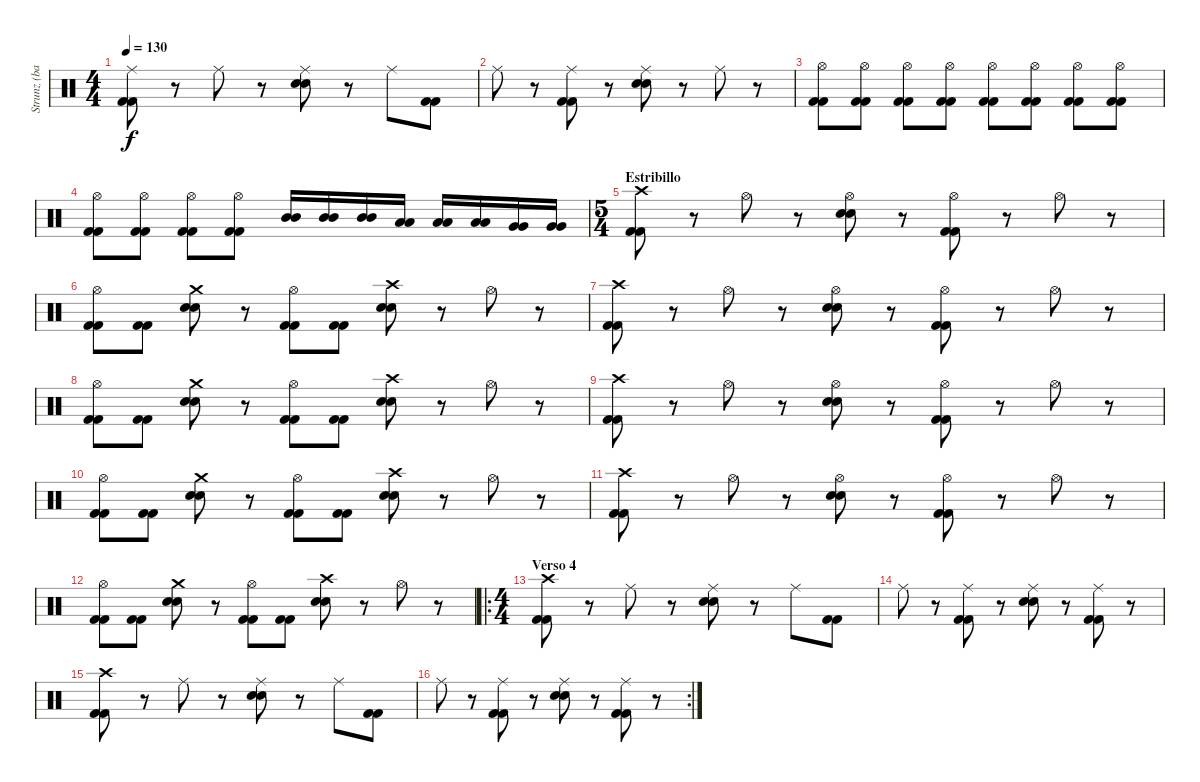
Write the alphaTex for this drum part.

\track ("Strunz (bateria)" "Strunz (ba") {instrument percussion}
\staff {score}
\articulation defaults
\ts (4 4)
\tempo 130
\clef neutral
\ks c
("Ride (middle)" "Kick (hit) 2" "Kick (hit) 2").8{dy f} r.8 "Ride (middle)".8 r.8 ("Ride (middle)" "Snare (hit) 2" "Snare (hit) 2").8 r.8 "Ride (middle)".8 ("Kick (hit) 2" "Kick (hit) 2").8 |
"Ride (middle)".8 r.8 ("Ride (middle)" "Kick (hit) 2" "Kick (hit) 2").8 r.8 ("Ride (middle)" "Snare (hit) 2" "Snare (hit) 2").8 r.8 "Ride (middle)".8 r.8 |
("Hi-Hat (open)" "Kick (hit) 2" "Kick (hit) 2").8 ("Hi-Hat (open)" "Kick (hit) 2" "Kick (hit) 2").8 ("Hi-Hat (open)" "Kick (hit) 2" "Kick (hit) 2").8 ("Hi-Hat (open)" "Kick (hit) 2" "Kick (hit) 2").8 ("Hi-Hat (open)" "Kick (hit) 2" "Kick (hit) 2").8 ("Hi-Hat (open)" "Kick (hit) 2" "Kick (hit) 2").8 ("Hi-Hat (open)" "Kick (hit) 2" "Kick (hit) 2").8 ("Hi-Hat (open)" "Kick (hit) 2" "Kick (hit) 2").8 |
("Hi-Hat (open)" "Kick (hit) 2" "Kick (hit) 2").8 ("Hi-Hat (open)" "Kick (hit) 2" "Kick (hit) 2").8 ("Hi-Hat (open)" "Kick (hit) 2" "Kick (hit) 2").8 ("Hi-Hat (open)" "Kick (hit) 2" "Kick (hit) 2").8 ("Mid Tom (hit)" "Mid Tom (hit)").16 ("Mid Tom (hit)" "Mid Tom (hit)").16 ("Mid Tom (hit)" "Mid Tom (hit)").16 ("Low Tom (hit)" "Low Tom (hit)").16 ("Low Tom (hit)" "Low Tom (hit)").16 ("Low Tom (hit)" "Low Tom (hit)").16 ("Very Low Tom (hit)" "Very Low Tom (hit)").16 ("Very Low Tom (hit)" "Very Low Tom (hit)").16 |
\ts (5 4)
\section ("" "Estribillo")
("Crash high (hit)" "Kick (hit) 2" "Kick (hit) 2").8 r.8 "Hi-Hat (open)".8 r.8 ("Hi-Hat (open)" "Snare (hit) 2" "Snare (hit) 2").8 r.8 ("Hi-Hat (open)" "Kick (hit) 2" "Kick (hit) 2").8 r.8 "Hi-Hat (open)".8 r.8 |
("Hi-Hat (open)" "Kick (hit) 2" "Kick (hit) 2").8 ("Kick (hit) 2" "Kick (hit) 2").8 ("Crash medium (hit)" "Snare (hit) 2" "Snare (hit) 2").8 r.8 ("Hi-Hat (open)" "Kick (hit) 2" "Kick (hit) 2").8 ("Kick (hit) 2" "Kick (hit) 2").8 ("Crash high (hit)" "Snare (hit) 2" "Snare (hit) 2").8 r.8 "Hi-Hat (open)".8 r.8 |
("Crash high (hit)" "Kick (hit) 2" "Kick (hit) 2").8 r.8 "Hi-Hat (open)".8 r.8 ("Hi-Hat (open)" "Snare (hit) 2" "Snare (hit) 2").8 r.8 ("Hi-Hat (open)" "Kick (hit) 2" "Kick (hit) 2").8 r.8 "Hi-Hat (open)".8 r.8 |
("Hi-Hat (open)" "Kick (hit) 2" "Kick (hit) 2").8 ("Kick (hit) 2" "Kick (hit) 2").8 ("Crash medium (hit)" "Snare (hit) 2" "Snare (hit) 2").8 r.8 ("Hi-Hat (open)" "Kick (hit) 2" "Kick (hit) 2").8 ("Kick (hit) 2" "Kick (hit) 2").8 ("Crash high (hit)" "Snare (hit) 2" "Snare (hit) 2").8 r.8 "Hi-Hat (open)".8 r.8 |
("Crash high (hit)" "Kick (hit) 2" "Kick (hit) 2").8 r.8 "Hi-Hat (open)".8 r.8 ("Hi-Hat (open)" "Snare (hit) 2" "Snare (hit) 2").8 r.8 ("Hi-Hat (open)" "Kick (hit) 2" "Kick (hit) 2").8 r.8 "Hi-Hat (open)".8 r.8 |
("Hi-Hat (open)" "Kick (hit) 2" "Kick (hit) 2").8 ("Kick (hit) 2" "Kick (hit) 2").8 ("Crash medium (hit)" "Snare (hit) 2" "Snare (hit) 2").8 r.8 ("Hi-Hat (open)" "Kick (hit) 2" "Kick (hit) 2").8 ("Kick (hit) 2" "Kick (hit) 2").8 ("Crash high (hit)" "Snare (hit) 2" "Snare (hit) 2").8 r.8 "Hi-Hat (open)".8 r.8 |
("Crash high (hit)" "Kick (hit) 2" "Kick (hit) 2").8 r.8 "Hi-Hat (open)".8 r.8 ("Hi-Hat (open)" "Snare (hit) 2" "Snare (hit) 2").8 r.8 ("Hi-Hat (open)" "Kick (hit) 2" "Kick (hit) 2").8 r.8 "Hi-Hat (open)".8 r.8 |
("Hi-Hat (open)" "Kick (hit) 2" "Kick (hit) 2").8 ("Kick (hit) 2" "Kick (hit) 2").8 ("Crash medium (hit)" "Snare (hit) 2" "Snare (hit) 2").8 r.8 ("Hi-Hat (open)" "Kick (hit) 2" "Kick (hit) 2").8 ("Kick (hit) 2" "Kick (hit) 2").8 ("Crash high (hit)" "Snare (hit) 2" "Snare (hit) 2").8 r.8 "Hi-Hat (open)".8 r.8 |
\ro
\ts (4 4)
\section ("" "Verso 4")
("Crash high (hit)" "Kick (hit) 2" "Kick (hit) 2").8 r.8 "Ride (middle)".8 r.8 ("Ride (middle)" "Snare (hit) 2" "Snare (hit) 2").8 r.8 "Ride (middle)".8 ("Kick (hit) 2" "Kick (hit) 2").8 |
"Ride (middle)".8 r.8 ("Ride (middle)" "Kick (hit) 2" "Kick (hit) 2").8 r.8 ("Ride (middle)" "Snare (hit) 2" "Snare (hit) 2").8 r.8 ("Ride (middle)" "Kick (hit) 2" "Kick (hit) 2").8 r.8 |
("Crash high (hit)" "Kick (hit) 2" "Kick (hit) 2").8 r.8 "Ride (middle)".8 r.8 ("Ride (middle)" "Snare (hit) 2" "Snare (hit) 2").8 r.8 "Ride (middle)".8 ("Kick (hit) 2" "Kick (hit) 2").8 |
\rc 2 "Ride (middle)".8
r.8 ("Ride (middle)" "Kick (hit) 2" "Kick (hit) 2").8 r.8 ("Ride (middle)" "Snare (hit) 2" "Snare (hit) 2").8 r.8 ("Ride (middle)" "Kick (hit) 2" "Kick (hit) 2").8 r.8
